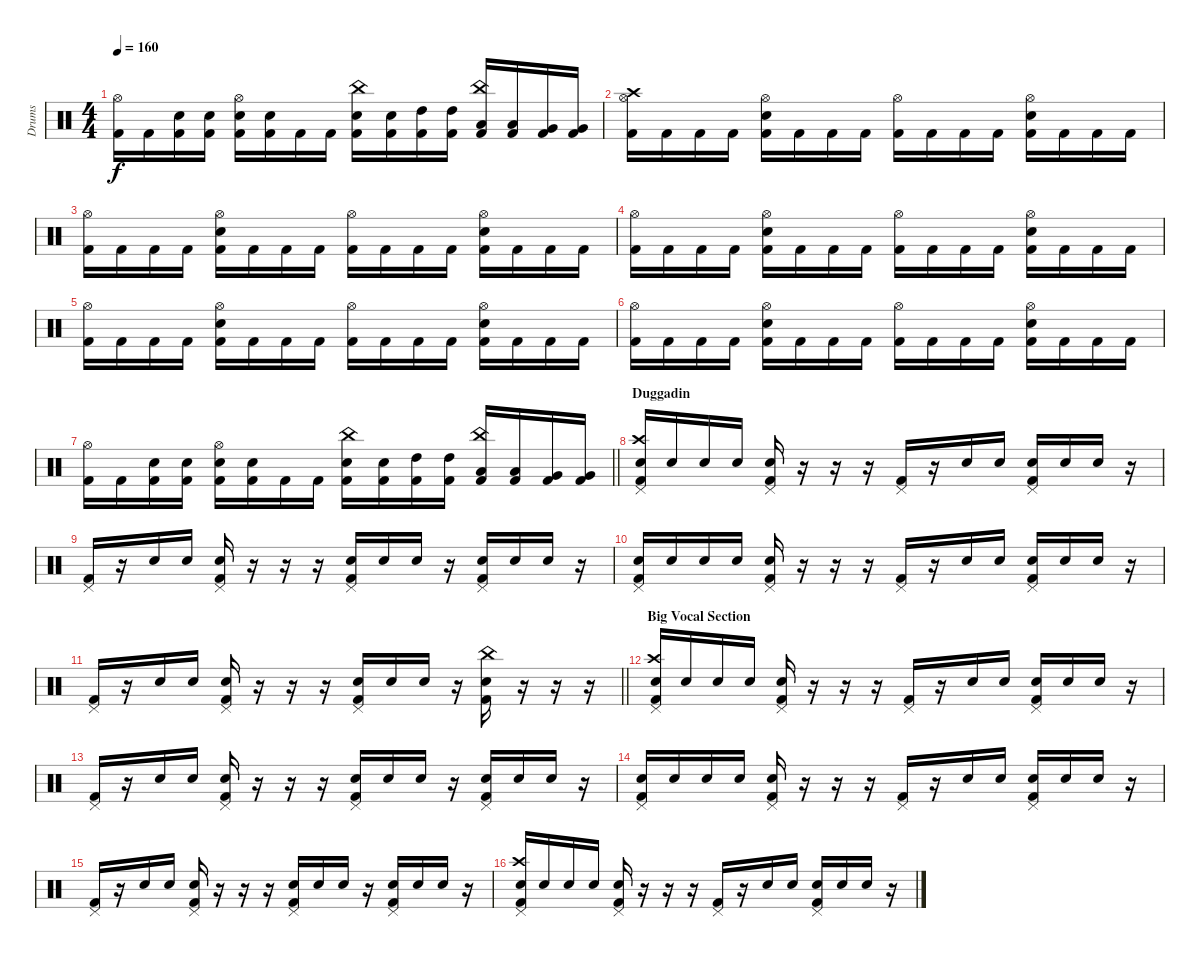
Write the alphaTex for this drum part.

\track ("Drums" "Drums") {instrument percussion}
\staff {score}
\articulation defaults
\ts (4 4)
\tempo 160
\clef neutral
\ks c
("Hi-Hat (open)" "Kick (hit) 2").16{dy f} "Kick (hit) 2".16 ("Snare (hit) 2" "Kick (hit) 2").16 ("Snare (hit) 2" "Kick (hit) 2").16 ("Hi-Hat (open)" "Snare (hit) 2" "Kick (hit) 2").16 ("Snare (hit) 2" "Kick (hit) 2").16 "Kick (hit) 2".16 "Kick (hit) 2".16 ("China (hit)" "Snare (hit) 2" "Kick (hit) 2").16 ("Snare (hit) 2" "Kick (hit) 2").16 ("High Tom (hit)" "Kick (hit) 2").16 ("High Tom (hit)" "Kick (hit) 2").16 ("China (hit)" "Low Tom (hit)" "Kick (hit) 2").16 ("Low Tom (hit)" "Kick (hit) 2").16 ("Very Low Tom (hit)" "Kick (hit) 2").16 ("Very Low Tom (hit)" "Kick (hit) 2").16 |
("Crash high (hit)" "Hi-Hat (open)" "Kick (hit) 2").16 "Kick (hit) 2".16 "Kick (hit) 2".16 "Kick (hit) 2".16 ("Hi-Hat (open)" "Snare (hit) 2" "Kick (hit) 2").16 "Kick (hit) 2".16 "Kick (hit) 2".16 "Kick (hit) 2".16 ("Hi-Hat (open)" "Kick (hit) 2").16 "Kick (hit) 2".16 "Kick (hit) 2".16 "Kick (hit) 2".16 ("Hi-Hat (open)" "Snare (hit) 2" "Kick (hit) 2").16 "Kick (hit) 2".16 "Kick (hit) 2".16 "Kick (hit) 2".16 |
("Hi-Hat (open)" "Kick (hit) 2").16 "Kick (hit) 2".16 "Kick (hit) 2".16 "Kick (hit) 2".16 ("Hi-Hat (open)" "Snare (hit) 2" "Kick (hit) 2").16 "Kick (hit) 2".16 "Kick (hit) 2".16 "Kick (hit) 2".16 ("Hi-Hat (open)" "Kick (hit) 2").16 "Kick (hit) 2".16 "Kick (hit) 2".16 "Kick (hit) 2".16 ("Hi-Hat (open)" "Snare (hit) 2" "Kick (hit) 2").16 "Kick (hit) 2".16 "Kick (hit) 2".16 "Kick (hit) 2".16 |
("Hi-Hat (open)" "Kick (hit) 2").16 "Kick (hit) 2".16 "Kick (hit) 2".16 "Kick (hit) 2".16 ("Hi-Hat (open)" "Snare (hit) 2" "Kick (hit) 2").16 "Kick (hit) 2".16 "Kick (hit) 2".16 "Kick (hit) 2".16 ("Hi-Hat (open)" "Kick (hit) 2").16 "Kick (hit) 2".16 "Kick (hit) 2".16 "Kick (hit) 2".16 ("Hi-Hat (open)" "Snare (hit) 2" "Kick (hit) 2").16 "Kick (hit) 2".16 "Kick (hit) 2".16 "Kick (hit) 2".16 |
("Hi-Hat (open)" "Kick (hit) 2").16 "Kick (hit) 2".16 "Kick (hit) 2".16 "Kick (hit) 2".16 ("Hi-Hat (open)" "Snare (hit) 2" "Kick (hit) 2").16 "Kick (hit) 2".16 "Kick (hit) 2".16 "Kick (hit) 2".16 ("Hi-Hat (open)" "Kick (hit) 2").16 "Kick (hit) 2".16 "Kick (hit) 2".16 "Kick (hit) 2".16 ("Hi-Hat (open)" "Snare (hit) 2" "Kick (hit) 2").16 "Kick (hit) 2".16 "Kick (hit) 2".16 "Kick (hit) 2".16 |
("Hi-Hat (open)" "Kick (hit) 2").16 "Kick (hit) 2".16 "Kick (hit) 2".16 "Kick (hit) 2".16 ("Hi-Hat (open)" "Snare (hit) 2" "Kick (hit) 2").16 "Kick (hit) 2".16 "Kick (hit) 2".16 "Kick (hit) 2".16 ("Hi-Hat (open)" "Kick (hit) 2").16 "Kick (hit) 2".16 "Kick (hit) 2".16 "Kick (hit) 2".16 ("Hi-Hat (open)" "Snare (hit) 2" "Kick (hit) 2").16 "Kick (hit) 2".16 "Kick (hit) 2".16 "Kick (hit) 2".16 |
\barLineRight lightlight
("Hi-Hat (open)" "Kick (hit) 2").16 "Kick (hit) 2".16 ("Snare (hit) 2" "Kick (hit) 2").16 ("Snare (hit) 2" "Kick (hit) 2").16 ("Hi-Hat (open)" "Snare (hit) 2" "Kick (hit) 2").16 ("Snare (hit) 2" "Kick (hit) 2").16 "Kick (hit) 2".16 "Kick (hit) 2".16 ("China (hit)" "Snare (hit) 2" "Kick (hit) 2").16 ("Snare (hit) 2" "Kick (hit) 2").16 ("High Tom (hit)" "Kick (hit) 2").16 ("High Tom (hit)" "Kick (hit) 2").16 ("China (hit)" "Low Tom (hit)" "Kick (hit) 2").16 ("Low Tom (hit)" "Kick (hit) 2").16 ("Very Low Tom (hit)" "Kick (hit) 2").16 ("Very Low Tom (hit)" "Kick (hit) 2").16 |
\section ("" "Duggadin")
("Crash high (hit)" "Pedal Hi-Hat (hit)" "Snare (hit) 2" "Kick (hit) 2").16 "Snare (hit) 2".16 "Snare (hit) 2".16 "Snare (hit) 2".16 ("Pedal Hi-Hat (hit)" "Snare (hit) 2" "Kick (hit) 2").16 r.16 r.16 r.16 ("Pedal Hi-Hat (hit)" "Kick (hit) 2").16 r.16 "Snare (hit) 2".16 "Snare (hit) 2".16 ("Pedal Hi-Hat (hit)" "Snare (hit) 2" "Kick (hit) 2").16 "Snare (hit) 2".16 "Snare (hit) 2".16 r.16 |
("Pedal Hi-Hat (hit)" "Kick (hit) 2").16 r.16 "Snare (hit) 2".16 "Snare (hit) 2".16 ("Pedal Hi-Hat (hit)" "Snare (hit) 2" "Kick (hit) 2").16 r.16 r.16 r.16 ("Pedal Hi-Hat (hit)" "Snare (hit) 2" "Kick (hit) 2").16 "Snare (hit) 2".16 "Snare (hit) 2".16 r.16 ("Pedal Hi-Hat (hit)" "Snare (hit) 2" "Kick (hit) 2").16 "Snare (hit) 2".16 "Snare (hit) 2".16 r.16 |
("Pedal Hi-Hat (hit)" "Snare (hit) 2" "Kick (hit) 2").16 "Snare (hit) 2".16 "Snare (hit) 2".16 "Snare (hit) 2".16 ("Pedal Hi-Hat (hit)" "Snare (hit) 2" "Kick (hit) 2").16 r.16 r.16 r.16 ("Pedal Hi-Hat (hit)" "Kick (hit) 2").16 r.16 "Snare (hit) 2".16 "Snare (hit) 2".16 ("Pedal Hi-Hat (hit)" "Snare (hit) 2" "Kick (hit) 2").16 "Snare (hit) 2".16 "Snare (hit) 2".16 r.16 |
\barLineRight lightlight
("Pedal Hi-Hat (hit)" "Kick (hit) 2").16 r.16 "Snare (hit) 2".16 "Snare (hit) 2".16 ("Pedal Hi-Hat (hit)" "Snare (hit) 2" "Kick (hit) 2").16 r.16 r.16 r.16 ("Pedal Hi-Hat (hit)" "Snare (hit) 2" "Kick (hit) 2").16 "Snare (hit) 2".16 "Snare (hit) 2".16 r.16 ("China (hit)" "Snare (hit) 2" "Kick (hit) 2").16 r.16 r.16 r.16 |
\section ("" "Big Vocal Section")
("Crash high (hit)" "Pedal Hi-Hat (hit)" "Snare (hit) 2" "Kick (hit) 2").16 "Snare (hit) 2".16 "Snare (hit) 2".16 "Snare (hit) 2".16 ("Pedal Hi-Hat (hit)" "Snare (hit) 2" "Kick (hit) 2").16 r.16 r.16 r.16 ("Pedal Hi-Hat (hit)" "Kick (hit) 2").16 r.16 "Snare (hit) 2".16 "Snare (hit) 2".16 ("Pedal Hi-Hat (hit)" "Snare (hit) 2" "Kick (hit) 2").16 "Snare (hit) 2".16 "Snare (hit) 2".16 r.16 |
("Pedal Hi-Hat (hit)" "Kick (hit) 2").16 r.16 "Snare (hit) 2".16 "Snare (hit) 2".16 ("Pedal Hi-Hat (hit)" "Snare (hit) 2" "Kick (hit) 2").16 r.16 r.16 r.16 ("Pedal Hi-Hat (hit)" "Snare (hit) 2" "Kick (hit) 2").16 "Snare (hit) 2".16 "Snare (hit) 2".16 r.16 ("Pedal Hi-Hat (hit)" "Snare (hit) 2" "Kick (hit) 2").16 "Snare (hit) 2".16 "Snare (hit) 2".16 r.16 |
("Pedal Hi-Hat (hit)" "Snare (hit) 2" "Kick (hit) 2").16 "Snare (hit) 2".16 "Snare (hit) 2".16 "Snare (hit) 2".16 ("Pedal Hi-Hat (hit)" "Snare (hit) 2" "Kick (hit) 2").16 r.16 r.16 r.16 ("Pedal Hi-Hat (hit)" "Kick (hit) 2").16 r.16 "Snare (hit) 2".16 "Snare (hit) 2".16 ("Pedal Hi-Hat (hit)" "Snare (hit) 2" "Kick (hit) 2").16 "Snare (hit) 2".16 "Snare (hit) 2".16 r.16 |
("Pedal Hi-Hat (hit)" "Kick (hit) 2").16 r.16 "Snare (hit) 2".16 "Snare (hit) 2".16 ("Pedal Hi-Hat (hit)" "Snare (hit) 2" "Kick (hit) 2").16 r.16 r.16 r.16 ("Pedal Hi-Hat (hit)" "Snare (hit) 2" "Kick (hit) 2").16 "Snare (hit) 2".16 "Snare (hit) 2".16 r.16 ("Pedal Hi-Hat (hit)" "Snare (hit) 2" "Kick (hit) 2").16 "Snare (hit) 2".16 "Snare (hit) 2".16 r.16 |
("Crash high (hit)" "Pedal Hi-Hat (hit)" "Snare (hit) 2" "Kick (hit) 2").16 "Snare (hit) 2".16 "Snare (hit) 2".16 "Snare (hit) 2".16 ("Pedal Hi-Hat (hit)" "Snare (hit) 2" "Kick (hit) 2").16 r.16 r.16 r.16 ("Pedal Hi-Hat (hit)" "Kick (hit) 2").16 r.16 "Snare (hit) 2".16 "Snare (hit) 2".16 ("Pedal Hi-Hat (hit)" "Snare (hit) 2" "Kick (hit) 2").16 "Snare (hit) 2".16 "Snare (hit) 2".16 r.16
